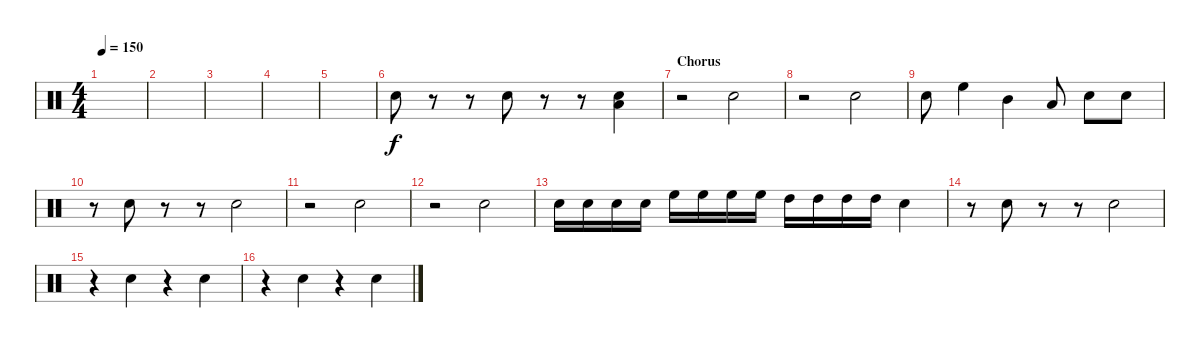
\track "" {instrument percussion}
\staff {score}
\articulation defaults
\ts (4 4)
\tempo 150
\clef neutral
\ks c
|
|
|
|
|
"Electric Snare (hit)".8 r.8 r.8 "Electric Snare (hit)".8 r.8 r.8 ("Low Tom (hit)" "Electric Snare (hit)").4 |
\section ("" "Chorus")
r.2 "Electric Snare (hit)".2 |
r.2 "Electric Snare (hit)".2 |
"Electric Snare (hit)".8 "High Floor Tom (hit)".4 "Mid Tom (hit)".4 "Low Tom (hit)".8 "Electric Snare (hit)".8 "Electric Snare (hit)".8 |
r.8 "Electric Snare (hit)".8 r.8 r.8 "Electric Snare (hit)".2 |
r.2 "Electric Snare (hit)".2 |
r.2 "Electric Snare (hit)".2 |
"Electric Snare (hit)".16 "Electric Snare (hit)".16 "Electric Snare (hit)".16 "Electric Snare (hit)".16 "High Floor Tom (hit)".16 "High Floor Tom (hit)".16 "High Floor Tom (hit)".16 "High Floor Tom (hit)".16 "High Tom (hit)".16 "High Tom (hit)".16 "High Tom (hit)".16 "High Tom (hit)".16 "Electric Snare (hit)".4 |
r.8 "Electric Snare (hit)".8 r.8 r.8 "Electric Snare (hit)".2 |
r.4 "Electric Snare (hit)".4 r.4 "Electric Snare (hit)".4 |
r.4 "Electric Snare (hit)".4 r.4 "Electric Snare (hit)".4
